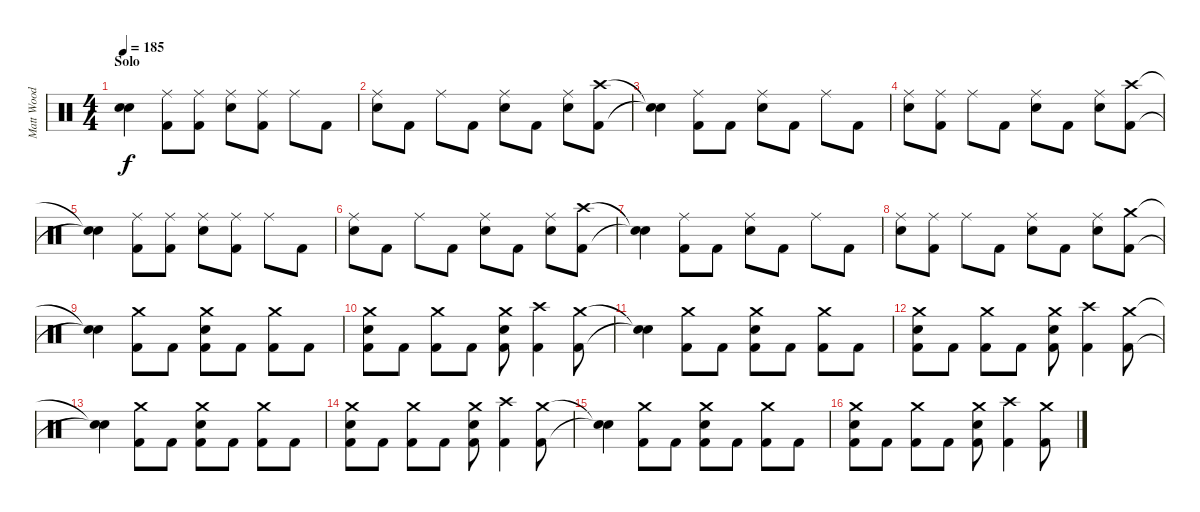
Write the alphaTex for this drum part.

\track ("Matt Wood" "Matt Wood") {instrument percussion}
\staff {score}
\articulation defaults
\ts (4 4)
\section ("" "Solo")
\tempo 185
\clef neutral
\ks c
("Snare (hit)"{t} "Snare (hit)"{t}).4{dy f} ("Ride (middle)" "Kick (hit) 2").8 ("Ride (middle)" "Kick (hit) 2").8 ("Ride (middle)" "Snare (hit) 2").8 ("Ride (middle)" "Kick (hit) 2").8 "Ride (middle)".8 "Kick (hit) 2".8 |
("Ride (middle)" "Snare (hit) 2").8 "Kick (hit) 2".8 "Ride (middle)".8 "Kick (hit) 2".8 ("Ride (middle)" "Snare (hit) 2").8 "Kick (hit) 2".8 ("Ride (middle)" "Snare (hit) 2").8 ("Crash high (hit)" "Kick (hit) 2").8 |
("Snare (hit)"{t} "Snare (hit)"{t}).4 ("Ride (middle)" "Kick (hit) 2").8 "Kick (hit) 2".8 ("Ride (middle)" "Snare (hit) 2").8 "Kick (hit) 2".8 "Ride (middle)".8 "Kick (hit) 2".8 |
("Ride (middle)" "Snare (hit) 2").8 ("Ride (middle)" "Kick (hit) 2").8 "Ride (middle)".8 "Kick (hit) 2".8 ("Ride (middle)" "Snare (hit) 2").8 "Kick (hit) 2".8 ("Ride (middle)" "Snare (hit) 2").8 ("Crash high (hit)" "Kick (hit) 2").8 |
("Snare (hit)"{t} "Snare (hit)"{t}).4 ("Ride (middle)" "Kick (hit) 2").8 ("Ride (middle)" "Kick (hit) 2").8 ("Ride (middle)" "Snare (hit) 2").8 ("Ride (middle)" "Kick (hit) 2").8 "Ride (middle)".8 "Kick (hit) 2".8 |
("Ride (middle)" "Snare (hit) 2").8 "Kick (hit) 2".8 "Ride (middle)".8 "Kick (hit) 2".8 ("Ride (middle)" "Snare (hit) 2").8 "Kick (hit) 2".8 ("Ride (middle)" "Snare (hit) 2").8 ("Crash high (hit)" "Kick (hit) 2").8 |
("Snare (hit)"{t} "Snare (hit)"{t}).4 ("Ride (middle)" "Kick (hit) 2").8 "Kick (hit) 2".8 ("Ride (middle)" "Snare (hit) 2").8 "Kick (hit) 2".8 "Ride (middle)".8 "Kick (hit) 2".8 |
("Ride (middle)" "Snare (hit) 2").8 ("Ride (middle)" "Kick (hit) 2").8 "Ride (middle)".8 "Kick (hit) 2".8 ("Ride (middle)" "Snare (hit) 2").8 "Kick (hit) 2".8 ("Ride (middle)" "Snare (hit) 2").8 ("Crash medium (hit)" "Kick (hit) 2").8 |
("Snare (hit)"{t} "Snare (hit)"{t}).4 ("Crash medium (hit)" "Kick (hit) 2").8 "Kick (hit) 2".8 ("Crash medium (hit)" "Snare (hit) 2" "Kick (hit) 2").8 "Kick (hit) 2".8 ("Crash medium (hit)" "Kick (hit) 2").8 "Kick (hit) 2".8 |
("Crash medium (hit)" "Snare (hit) 2" "Kick (hit) 2").8 "Kick (hit) 2".8 ("Crash medium (hit)" "Kick (hit) 2").8 "Kick (hit) 2".8 ("Crash medium (hit)" "Snare (hit) 2" "Kick (hit) 2").8 ("Crash high (hit)" "Kick (hit) 2").4 ("Crash medium (hit)" "Kick (hit) 2").8 |
("Snare (hit)"{t} "Snare (hit)"{t}).4 ("Crash medium (hit)" "Kick (hit) 2").8 "Kick (hit) 2".8 ("Crash medium (hit)" "Snare (hit) 2" "Kick (hit) 2").8 "Kick (hit) 2".8 ("Crash medium (hit)" "Kick (hit) 2").8 "Kick (hit) 2".8 |
("Crash medium (hit)" "Snare (hit) 2" "Kick (hit) 2").8 "Kick (hit) 2".8 ("Crash medium (hit)" "Kick (hit) 2").8 "Kick (hit) 2".8 ("Crash medium (hit)" "Snare (hit) 2" "Kick (hit) 2").8 ("Crash high (hit)" "Kick (hit) 2").4 ("Crash medium (hit)" "Kick (hit) 2").8 |
("Snare (hit)"{t} "Snare (hit)"{t}).4 ("Crash medium (hit)" "Kick (hit) 2").8 "Kick (hit) 2".8 ("Crash medium (hit)" "Snare (hit) 2" "Kick (hit) 2").8 "Kick (hit) 2".8 ("Crash medium (hit)" "Kick (hit) 2").8 "Kick (hit) 2".8 |
("Crash medium (hit)" "Snare (hit) 2" "Kick (hit) 2").8 "Kick (hit) 2".8 ("Crash medium (hit)" "Kick (hit) 2").8 "Kick (hit) 2".8 ("Crash medium (hit)" "Snare (hit) 2" "Kick (hit) 2").8 ("Crash high (hit)" "Kick (hit) 2").4 ("Crash medium (hit)" "Kick (hit) 2").8 |
("Snare (hit)"{t} "Snare (hit)"{t}).4 ("Crash medium (hit)" "Kick (hit) 2").8 "Kick (hit) 2".8 ("Crash medium (hit)" "Snare (hit) 2" "Kick (hit) 2").8 "Kick (hit) 2".8 ("Crash medium (hit)" "Kick (hit) 2").8 "Kick (hit) 2".8 |
("Crash medium (hit)" "Snare (hit) 2" "Kick (hit) 2").8 "Kick (hit) 2".8 ("Crash medium (hit)" "Kick (hit) 2").8 "Kick (hit) 2".8 ("Crash medium (hit)" "Snare (hit) 2" "Kick (hit) 2").8 ("Crash high (hit)" "Kick (hit) 2").4 ("Crash medium (hit)" "Kick (hit) 2").8
